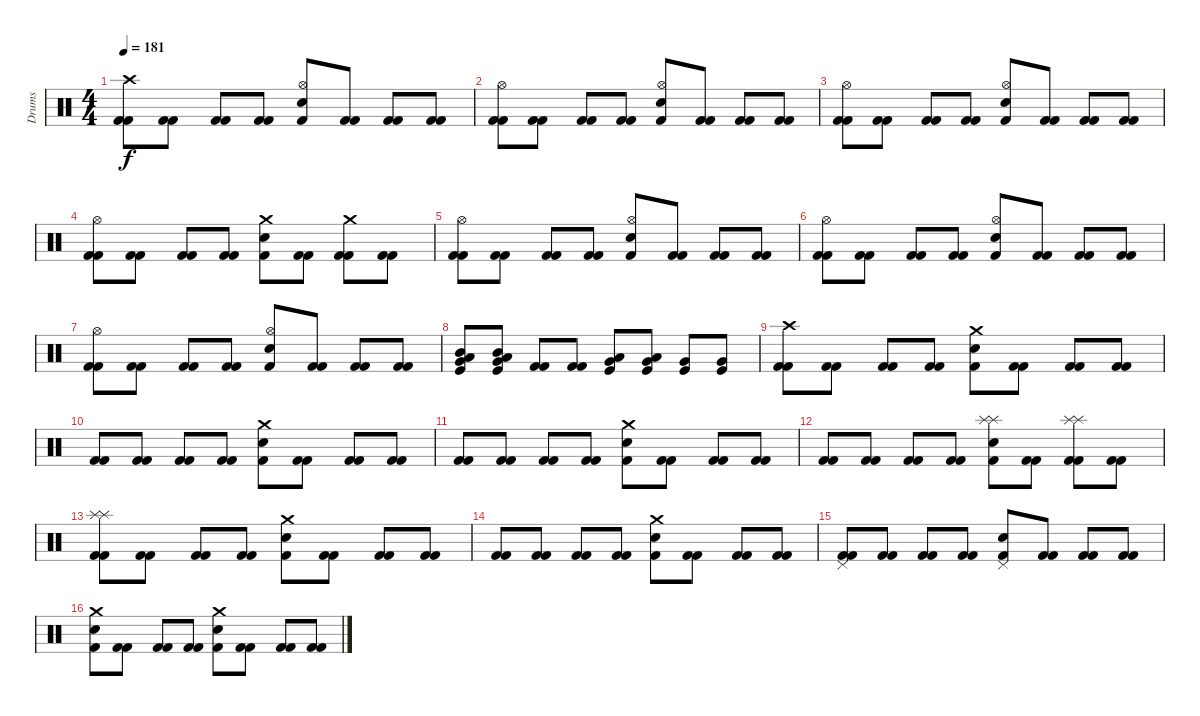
\track ("Drums" "Drums") {instrument percussion}
\staff {score}
\articulation defaults
\ts (4 4)
\tempo 181
\clef neutral
\ks c
("Crash high (hit)" "Kick (hit) 2" "Kick (hit) 2").8{dy f} ("Kick (hit) 2" "Kick (hit) 2").8 ("Kick (hit) 2" "Kick (hit) 2").8 ("Kick (hit) 2" "Kick (hit) 2").8 ("Hi-Hat (open)" "Electric Snare (hit)" "Kick (hit) 2").8 ("Kick (hit) 2" "Kick (hit) 2").8 ("Kick (hit) 2" "Kick (hit) 2").8 ("Kick (hit) 2" "Kick (hit) 2").8 |
("Hi-Hat (open)" "Kick (hit) 2" "Kick (hit) 2").8 ("Kick (hit) 2" "Kick (hit) 2").8 ("Kick (hit) 2" "Kick (hit) 2").8 ("Kick (hit) 2" "Kick (hit) 2").8 ("Hi-Hat (open)" "Electric Snare (hit)" "Kick (hit) 2").8 ("Kick (hit) 2" "Kick (hit) 2").8 ("Kick (hit) 2" "Kick (hit) 2").8 ("Kick (hit) 2" "Kick (hit) 2").8 |
("Hi-Hat (open)" "Kick (hit) 2" "Kick (hit) 2").8 ("Kick (hit) 2" "Kick (hit) 2").8 ("Kick (hit) 2" "Kick (hit) 2").8 ("Kick (hit) 2" "Kick (hit) 2").8 ("Hi-Hat (open)" "Electric Snare (hit)" "Kick (hit) 2").8 ("Kick (hit) 2" "Kick (hit) 2").8 ("Kick (hit) 2" "Kick (hit) 2").8 ("Kick (hit) 2" "Kick (hit) 2").8 |
("Hi-Hat (open)" "Kick (hit) 2" "Kick (hit) 2").8 ("Kick (hit) 2" "Kick (hit) 2").8 ("Kick (hit) 2" "Kick (hit) 2").8 ("Kick (hit) 2" "Kick (hit) 2").8 ("Crash medium (hit)" "Electric Snare (hit)" "Kick (hit) 2").8 ("Kick (hit) 2" "Kick (hit) 2").8 ("Crash medium (hit)" "Kick (hit) 2" "Kick (hit) 2").8 ("Kick (hit) 2" "Kick (hit) 2").8 |
("Hi-Hat (open)" "Kick (hit) 2" "Kick (hit) 2").8 ("Kick (hit) 2" "Kick (hit) 2").8 ("Kick (hit) 2" "Kick (hit) 2").8 ("Kick (hit) 2" "Kick (hit) 2").8 ("Hi-Hat (open)" "Electric Snare (hit)" "Kick (hit) 2").8 ("Kick (hit) 2" "Kick (hit) 2").8 ("Kick (hit) 2" "Kick (hit) 2").8 ("Kick (hit) 2" "Kick (hit) 2").8 |
("Hi-Hat (open)" "Kick (hit) 2" "Kick (hit) 2").8 ("Kick (hit) 2" "Kick (hit) 2").8 ("Kick (hit) 2" "Kick (hit) 2").8 ("Kick (hit) 2" "Kick (hit) 2").8 ("Hi-Hat (open)" "Electric Snare (hit)" "Kick (hit) 2").8 ("Kick (hit) 2" "Kick (hit) 2").8 ("Kick (hit) 2" "Kick (hit) 2").8 ("Kick (hit) 2" "Kick (hit) 2").8 |
("Hi-Hat (open)" "Kick (hit) 2" "Kick (hit) 2").8 ("Kick (hit) 2" "Kick (hit) 2").8 ("Kick (hit) 2" "Kick (hit) 2").8 ("Kick (hit) 2" "Kick (hit) 2").8 ("Hi-Hat (open)" "Electric Snare (hit)" "Kick (hit) 2").8 ("Kick (hit) 2" "Kick (hit) 2").8 ("Kick (hit) 2" "Kick (hit) 2").8 ("Kick (hit) 2" "Kick (hit) 2").8 |
("Mid Tom (hit)" "Low Tom (hit)" "Very Low Tom (hit)" "Kick (hit)").8 ("Mid Tom (hit)" "Low Tom (hit)" "Very Low Tom (hit)" "Kick (hit)").8 ("Kick (hit) 2" "Kick (hit) 2").8 ("Kick (hit) 2" "Kick (hit) 2").8 ("Low Tom (hit)" "Very Low Tom (hit)" "Kick (hit)").8 ("Low Tom (hit)" "Very Low Tom (hit)" "Kick (hit)").8 ("Very Low Tom (hit)" "Kick (hit)").8 ("Very Low Tom (hit)" "Kick (hit)").8 |
("Crash high (hit)" "Kick (hit) 2" "Kick (hit) 2").8 ("Kick (hit) 2" "Kick (hit) 2").8 ("Kick (hit) 2" "Kick (hit) 2").8 ("Kick (hit) 2" "Kick (hit) 2").8 ("Crash medium (hit)" "Electric Snare (hit)" "Kick (hit) 2").8 ("Kick (hit) 2" "Kick (hit) 2").8 ("Kick (hit) 2" "Kick (hit) 2").8 ("Kick (hit) 2" "Kick (hit) 2").8 |
("Kick (hit) 2" "Kick (hit) 2").8 ("Kick (hit) 2" "Kick (hit) 2").8 ("Kick (hit) 2" "Kick (hit) 2").8 ("Kick (hit) 2" "Kick (hit) 2").8 ("Crash medium (hit)" "Electric Snare (hit)" "Kick (hit) 2").8 ("Kick (hit) 2" "Kick (hit) 2").8 ("Kick (hit) 2" "Kick (hit) 2").8 ("Kick (hit) 2" "Kick (hit) 2").8 |
("Kick (hit) 2" "Kick (hit) 2").8 ("Kick (hit) 2" "Kick (hit) 2").8 ("Kick (hit) 2" "Kick (hit) 2").8 ("Kick (hit) 2" "Kick (hit) 2").8 ("Crash medium (hit)" "Electric Snare (hit)" "Kick (hit) 2").8 ("Kick (hit) 2" "Kick (hit) 2").8 ("Kick (hit) 2" "Kick (hit) 2").8 ("Kick (hit) 2" "Kick (hit) 2").8 |
("Kick (hit) 2" "Kick (hit) 2").8 ("Kick (hit) 2" "Kick (hit) 2").8 ("Kick (hit) 2" "Kick (hit) 2").8 ("Kick (hit) 2" "Kick (hit) 2").8 ("Splash (hit)" "Splash (hit)" "Electric Snare (hit)" "Kick (hit) 2").8 ("Kick (hit) 2" "Kick (hit) 2").8 ("Splash (hit)" "Splash (hit)" "Kick (hit) 2" "Kick (hit) 2").8 ("Kick (hit) 2" "Kick (hit) 2").8 |
("Splash (hit)" "Splash (hit)" "Kick (hit) 2" "Kick (hit) 2").8 ("Kick (hit) 2" "Kick (hit) 2").8 ("Kick (hit) 2" "Kick (hit) 2").8 ("Kick (hit) 2" "Kick (hit) 2").8 ("Crash medium (hit)" "Electric Snare (hit)" "Kick (hit) 2").8 ("Kick (hit) 2" "Kick (hit) 2").8 ("Kick (hit) 2" "Kick (hit) 2").8 ("Kick (hit) 2" "Kick (hit) 2").8 |
("Kick (hit) 2" "Kick (hit) 2").8 ("Kick (hit) 2" "Kick (hit) 2").8 ("Kick (hit) 2" "Kick (hit) 2").8 ("Kick (hit) 2" "Kick (hit) 2").8 ("Crash medium (hit)" "Electric Snare (hit)" "Kick (hit) 2").8 ("Kick (hit) 2" "Kick (hit) 2").8 ("Kick (hit) 2" "Kick (hit) 2").8 ("Kick (hit) 2" "Kick (hit) 2").8 |
("Pedal Hi-Hat (hit)" "Kick (hit) 2" "Kick (hit) 2").8 ("Kick (hit) 2" "Kick (hit) 2").8 ("Kick (hit) 2" "Kick (hit) 2").8 ("Kick (hit) 2" "Kick (hit) 2").8 ("Pedal Hi-Hat (hit)" "Electric Snare (hit)" "Kick (hit) 2").8 ("Kick (hit) 2" "Kick (hit) 2").8 ("Kick (hit) 2" "Kick (hit) 2").8 ("Kick (hit) 2" "Kick (hit) 2").8 |
("Crash medium (hit)" "Electric Snare (hit)" "Kick (hit) 2").8 ("Kick (hit) 2" "Kick (hit) 2").8 ("Kick (hit) 2" "Kick (hit) 2").8 ("Kick (hit) 2" "Kick (hit) 2").8 ("Crash medium (hit)" "Electric Snare (hit)" "Kick (hit) 2").8 ("Kick (hit) 2" "Kick (hit) 2").8 ("Kick (hit) 2" "Kick (hit) 2").8 ("Kick (hit) 2" "Kick (hit) 2").8
